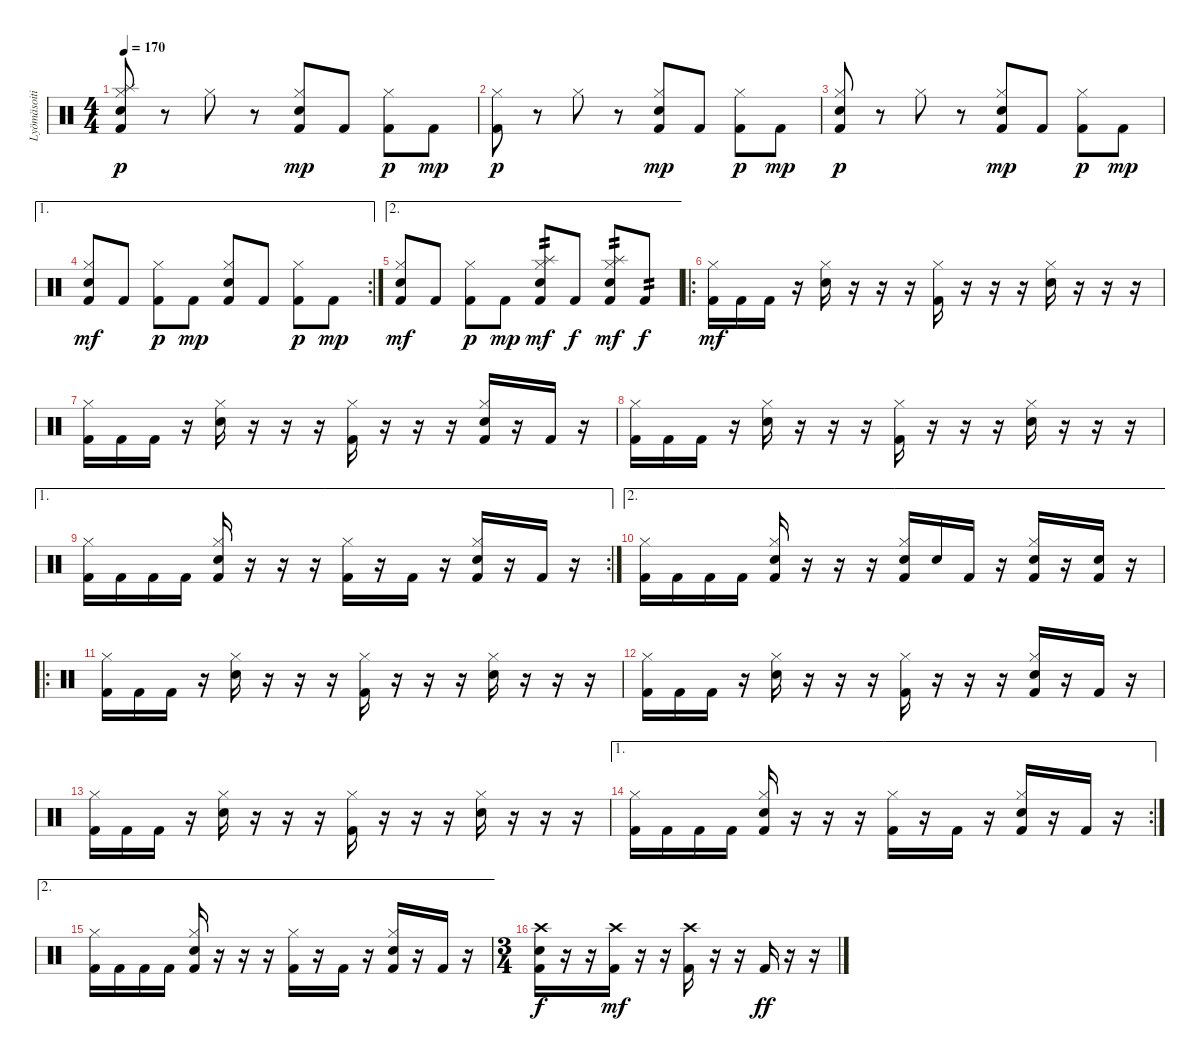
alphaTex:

\track ("Lyömäsoitin" "Lyömäsoiti") {instrument percussion}
\staff {score}
\articulation defaults
\ts (4 4)
\tempo 170
\clef neutral
\ks c
("Kick (hit) 2" "Hi-Hat (closed)" "Splash (hit)" "Electric Snare (hit)").8{dy p} r.8 "Hi-Hat (closed)".8 r.8 ("Kick (hit) 2" "Hi-Hat (closed)" "Snare (hit) 2").8{dy mp} "Kick (hit) 2".8 ("Kick (hit) 2" "Hi-Hat (closed)").8{dy p} "Kick (hit) 2".8{dy mp} |
("Kick (hit) 2" "Hi-Hat (closed)").8{dy p} r.8 "Hi-Hat (closed)".8 r.8 ("Kick (hit) 2" "Hi-Hat (closed)" "Snare (hit) 2").8{dy mp} "Kick (hit) 2".8 ("Kick (hit) 2" "Hi-Hat (closed)").8{dy p} "Kick (hit) 2".8{dy mp} |
("Kick (hit) 2" "Hi-Hat (closed)" "Electric Snare (hit)").8{dy p} r.8 "Hi-Hat (closed)".8 r.8 ("Kick (hit) 2" "Hi-Hat (closed)" "Snare (hit) 2").8{dy mp} "Kick (hit) 2".8 ("Kick (hit) 2" "Hi-Hat (closed)").8{dy p} "Kick (hit) 2".8{dy mp} |
\ae 1
\rc 2
("Kick (hit) 2" "Hi-Hat (closed)" "Electric Snare (hit)").8{dy mf} "Kick (hit) 2".8 ("Kick (hit) 2" "Hi-Hat (closed)").8{dy p} "Kick (hit) 2".8{dy mp} ("Kick (hit) 2" "Hi-Hat (closed)" "Snare (hit) 2").8 "Kick (hit) 2".8 ("Kick (hit) 2" "Hi-Hat (closed)").8{dy p} "Kick (hit) 2".8{dy mp} |
\ae 2
("Kick (hit) 2" "Hi-Hat (closed)" "Electric Snare (hit)").8{dy mf} "Kick (hit) 2".8 ("Kick (hit) 2" "Hi-Hat (closed)").8{dy p} "Kick (hit) 2".8{dy mp} ("Kick (hit) 2" "Hi-Hat (closed)" "Electric Snare (hit)" "Splash (hit)").8{tp 2 dy mf} "Kick (hit) 2".8{dy f} ("Kick (hit) 2" "Hi-Hat (closed)" "Electric Snare (hit)" "Splash (hit)").8{tp 2 dy mf} "Kick (hit) 2".8{tp 2 dy f} |
\ro
("Kick (hit) 2" "Hi-Hat (closed)").16{dy mf} "Kick (hit) 2".16 "Kick (hit) 2".16 r.16 ("Hi-Hat (closed)" "Electric Snare (hit)").16 r.16 r.16 r.16 ("Kick (hit) 2" "Hi-Hat (closed)").16 r.16 r.16 r.16 ("Hi-Hat (closed)" "Electric Snare (hit)").16 r.16 r.16 r.16 |
("Kick (hit) 2" "Hi-Hat (closed)").16 "Kick (hit) 2".16 "Kick (hit) 2".16 r.16 ("Hi-Hat (closed)" "Electric Snare (hit)").16 r.16 r.16 r.16 ("Kick (hit) 2" "Hi-Hat (closed)").16 r.16 r.16 r.16 ("Kick (hit) 2" "Hi-Hat (closed)" "Electric Snare (hit)").16 r.16 "Kick (hit) 2".16 r.16 |
("Kick (hit) 2" "Hi-Hat (closed)").16 "Kick (hit) 2".16 "Kick (hit) 2".16 r.16 ("Hi-Hat (closed)" "Electric Snare (hit)").16 r.16 r.16 r.16 ("Kick (hit) 2" "Hi-Hat (closed)").16 r.16 r.16 r.16 ("Hi-Hat (closed)" "Electric Snare (hit)").16 r.16 r.16 r.16 |
\ae 1
\rc 2
("Kick (hit) 2" "Hi-Hat (closed)").16 "Kick (hit) 2".16 "Kick (hit) 2".16 "Kick (hit) 2".16 ("Kick (hit) 2" "Hi-Hat (closed)" "Electric Snare (hit)").16 r.16 r.16 r.16 ("Kick (hit) 2" "Hi-Hat (closed)").16 r.16 "Kick (hit) 2".16 r.16 ("Kick (hit) 2" "Hi-Hat (closed)" "Electric Snare (hit)").16 r.16 "Kick (hit) 2".16 r.16 |
\ae 2
("Kick (hit) 2" "Hi-Hat (closed)").16 "Kick (hit) 2".16 "Kick (hit) 2".16 "Kick (hit) 2".16 ("Kick (hit) 2" "Hi-Hat (closed)" "Electric Snare (hit)").16 r.16 r.16 r.16 ("Kick (hit) 2" "Hi-Hat (closed)" "Electric Snare (hit)").16 "Electric Snare (hit)".16 "Kick (hit) 2".16 r.16 ("Kick (hit) 2" "Hi-Hat (closed)" "Electric Snare (hit)").16 r.16 ("Kick (hit) 2" "Electric Snare (hit)").16 r.16 |
\ro
("Kick (hit) 2" "Hi-Hat (closed)").16 "Kick (hit) 2".16 "Kick (hit) 2".16 r.16 ("Hi-Hat (closed)" "Electric Snare (hit)").16 r.16 r.16 r.16 ("Kick (hit) 2" "Hi-Hat (closed)").16 r.16 r.16 r.16 ("Hi-Hat (closed)" "Electric Snare (hit)").16 r.16 r.16 r.16 |
("Kick (hit) 2" "Hi-Hat (closed)").16 "Kick (hit) 2".16 "Kick (hit) 2".16 r.16 ("Hi-Hat (closed)" "Electric Snare (hit)").16 r.16 r.16 r.16 ("Kick (hit) 2" "Hi-Hat (closed)").16 r.16 r.16 r.16 ("Kick (hit) 2" "Hi-Hat (closed)" "Electric Snare (hit)").16 r.16 "Kick (hit) 2".16 r.16 |
("Kick (hit) 2" "Hi-Hat (closed)").16 "Kick (hit) 2".16 "Kick (hit) 2".16 r.16 ("Hi-Hat (closed)" "Electric Snare (hit)").16 r.16 r.16 r.16 ("Kick (hit) 2" "Hi-Hat (closed)").16 r.16 r.16 r.16 ("Hi-Hat (closed)" "Electric Snare (hit)").16 r.16 r.16 r.16 |
\ae 1
\rc 2
("Kick (hit) 2" "Hi-Hat (closed)").16 "Kick (hit) 2".16 "Kick (hit) 2".16 "Kick (hit) 2".16 ("Kick (hit) 2" "Hi-Hat (closed)" "Electric Snare (hit)").16 r.16 r.16 r.16 ("Kick (hit) 2" "Hi-Hat (closed)").16 r.16 "Kick (hit) 2".16 r.16 ("Kick (hit) 2" "Hi-Hat (closed)" "Electric Snare (hit)").16 r.16 "Kick (hit) 2".16 r.16 |
\ae 2
("Kick (hit) 2" "Hi-Hat (closed)").16 "Kick (hit) 2".16 "Kick (hit) 2".16 "Kick (hit) 2".16 ("Kick (hit) 2" "Hi-Hat (closed)" "Electric Snare (hit)").16 r.16 r.16 r.16 ("Kick (hit) 2" "Hi-Hat (closed)").16 r.16 "Kick (hit) 2".16 r.16 ("Kick (hit) 2" "Hi-Hat (closed)" "Electric Snare (hit)").16 r.16 "Kick (hit) 2".16 r.16 |
\ts (3 4)
("Kick (hit) 2" "Electric Snare (hit)" "Crash high (hit)").16{dy f} r.16 r.16 ("Kick (hit) 2" "Crash high (hit)").16{dy mf} r.16 r.16 ("Kick (hit) 2" "Crash high (hit)").16 r.16 r.16 "Kick (hit) 2".16{dy ff} r.16 r.16
